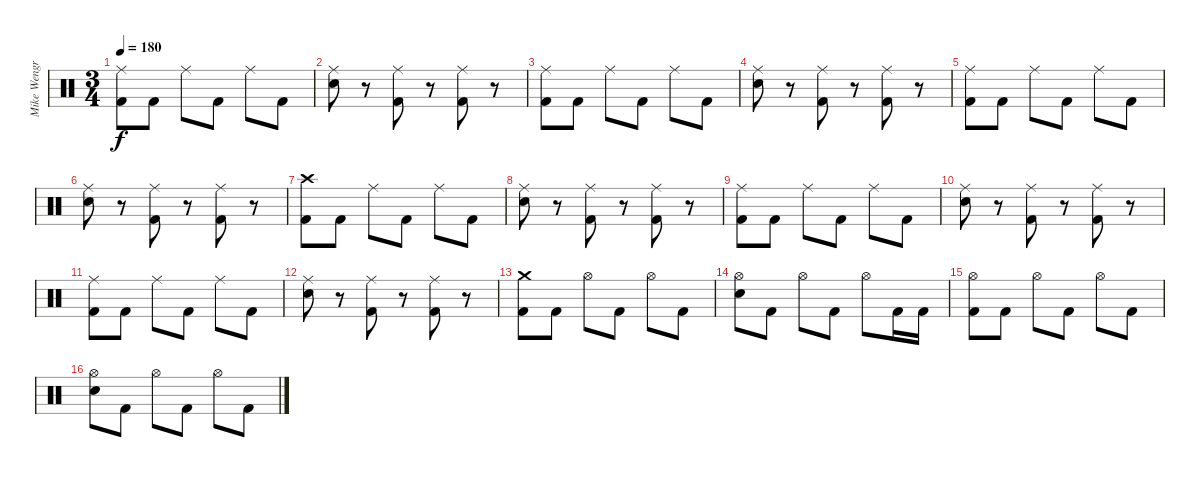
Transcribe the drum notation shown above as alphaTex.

\track ("Mike Wengren" "Mike Wengr") {instrument percussion}
\staff {score}
\articulation defaults
\ts (3 4)
\tempo 180
\clef neutral
\ks c
("Ride (middle)" "Kick (hit) 2").8{dy f} "Kick (hit) 2".8 "Ride (middle)".8 "Kick (hit) 2".8 "Ride (middle)".8 "Kick (hit) 2".8 |
("Ride (middle)" "Snare (hit) 2").8 r.8 ("Ride (middle)" "Kick (hit) 2").8 r.8 ("Ride (middle)" "Kick (hit) 2").8 r.8 |
("Ride (middle)" "Kick (hit) 2").8 "Kick (hit) 2".8 "Ride (middle)".8 "Kick (hit) 2".8 "Ride (middle)".8 "Kick (hit) 2".8 |
("Ride (middle)" "Snare (hit) 2").8 r.8 ("Ride (middle)" "Kick (hit) 2").8 r.8 ("Ride (middle)" "Kick (hit) 2").8 r.8 |
("Ride (middle)" "Kick (hit) 2").8 "Kick (hit) 2".8 "Ride (middle)".8 "Kick (hit) 2".8 "Ride (middle)".8 "Kick (hit) 2".8 |
("Ride (middle)" "Snare (hit) 2").8 r.8 ("Ride (middle)" "Kick (hit) 2").8 r.8 ("Ride (middle)" "Kick (hit) 2").8 r.8 |
("Crash high (hit)" "Kick (hit) 2").8 "Kick (hit) 2".8 "Ride (middle)".8 "Kick (hit) 2".8 "Ride (middle)".8 "Kick (hit) 2".8 |
("Ride (middle)" "Snare (hit) 2").8 r.8 ("Ride (middle)" "Kick (hit) 2").8 r.8 ("Ride (middle)" "Kick (hit) 2").8 r.8 |
("Ride (middle)" "Kick (hit) 2").8 "Kick (hit) 2".8 "Ride (middle)".8 "Kick (hit) 2".8 "Ride (middle)".8 "Kick (hit) 2".8 |
("Ride (middle)" "Snare (hit) 2").8 r.8 ("Ride (middle)" "Kick (hit) 2").8 r.8 ("Ride (middle)" "Kick (hit) 2").8 r.8 |
("Ride (middle)" "Kick (hit) 2").8 "Kick (hit) 2".8 "Ride (middle)".8 "Kick (hit) 2".8 "Ride (middle)".8 "Kick (hit) 2".8 |
("Ride (middle)" "Snare (hit) 2").8 r.8 ("Ride (middle)" "Kick (hit) 2").8 r.8 ("Ride (middle)" "Kick (hit) 2").8 r.8 |
("Crash medium (hit)" "Kick (hit) 2").8 "Kick (hit) 2".8 "Hi-Hat (open)".8 "Kick (hit) 2".8 "Hi-Hat (open)".8 "Kick (hit) 2".8 |
("Hi-Hat (open)" "Snare (hit) 2").8 "Kick (hit) 2".8 "Hi-Hat (open)".8 "Kick (hit) 2".8 "Hi-Hat (open)".8 "Kick (hit) 2".16 "Kick (hit) 2".16 |
("Hi-Hat (open)" "Kick (hit) 2").8 "Kick (hit) 2".8 "Hi-Hat (open)".8 "Kick (hit) 2".8 "Hi-Hat (open)".8 "Kick (hit) 2".8 |
("Hi-Hat (open)" "Snare (hit) 2").8 "Kick (hit) 2".8 "Hi-Hat (open)".8 "Kick (hit) 2".8 "Hi-Hat (open)".8 "Kick (hit) 2".8
